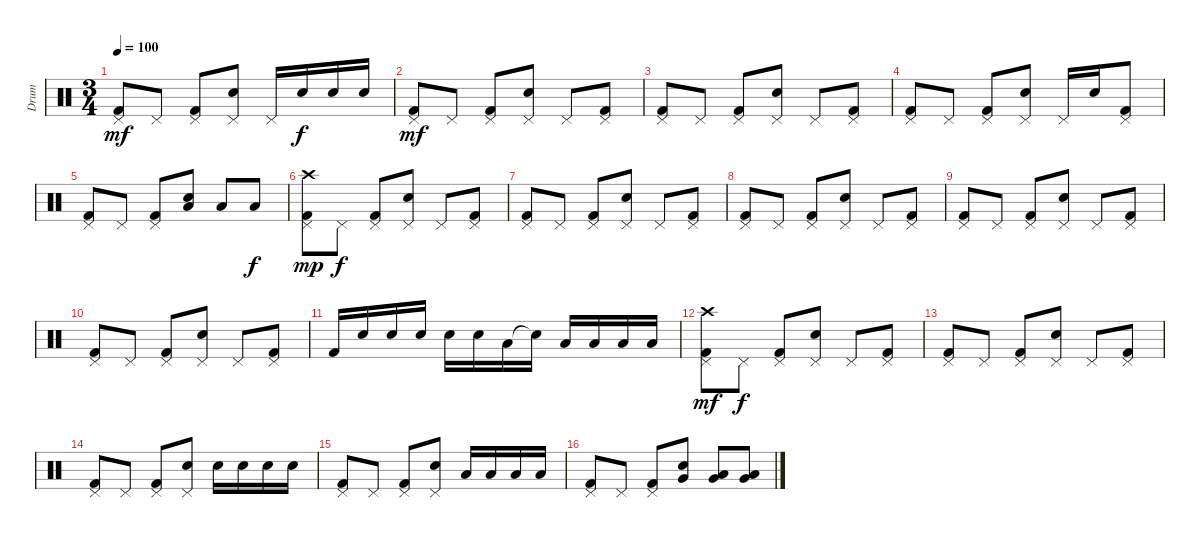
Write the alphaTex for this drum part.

\track ("Drum" "Drum") {instrument percussion}
\staff {score}
\articulation defaults
\ts (3 4)
\tempo 100
\clef neutral
\ks c
("Kick (hit) 2" "Pedal Hi-Hat (hit)").8{dy mf} "Pedal Hi-Hat (hit)".8 ("Kick (hit) 2" "Pedal Hi-Hat (hit)").8 ("Snare (hit) 2" "Pedal Hi-Hat (hit)").8 "Pedal Hi-Hat (hit)".16 "Snare (hit) 2".16{dy f} "Snare (hit) 2".16 "Snare (hit) 2".16 |
("Kick (hit) 2" "Pedal Hi-Hat (hit)").8{dy mf} "Pedal Hi-Hat (hit)".8 ("Kick (hit) 2" "Pedal Hi-Hat (hit)").8 ("Snare (hit) 2" "Pedal Hi-Hat (hit)").8 "Pedal Hi-Hat (hit)".8 ("Kick (hit) 2" "Pedal Hi-Hat (hit)").8 |
("Kick (hit) 2" "Pedal Hi-Hat (hit)").8 "Pedal Hi-Hat (hit)".8 ("Kick (hit) 2" "Pedal Hi-Hat (hit)").8 ("Snare (hit) 2" "Pedal Hi-Hat (hit)").8 "Pedal Hi-Hat (hit)".8 ("Kick (hit) 2" "Pedal Hi-Hat (hit)").8 |
("Kick (hit) 2" "Pedal Hi-Hat (hit)").8 "Pedal Hi-Hat (hit)".8 ("Kick (hit) 2" "Pedal Hi-Hat (hit)").8 ("Snare (hit) 2" "Pedal Hi-Hat (hit)").8 "Pedal Hi-Hat (hit)".16 "Snare (hit) 2".16 ("Kick (hit) 2" "Pedal Hi-Hat (hit)").8 |
("Kick (hit) 2" "Pedal Hi-Hat (hit)").8 "Pedal Hi-Hat (hit)".8 ("Kick (hit) 2" "Pedal Hi-Hat (hit)").8 ("Snare (hit) 2" "Low Tom (hit)").8{bd 120} "Low Tom (hit)".8 "Low Tom (hit)".8{dy f} |
("Kick (hit) 2" "Pedal Hi-Hat (hit)" "Crash high (hit)").8{dy mp} "Pedal Hi-Hat (hit)".8{dy f} ("Kick (hit) 2" "Pedal Hi-Hat (hit)").8 ("Snare (hit) 2" "Pedal Hi-Hat (hit)").8 "Pedal Hi-Hat (hit)".8 ("Kick (hit) 2" "Pedal Hi-Hat (hit)").8 |
("Kick (hit) 2" "Pedal Hi-Hat (hit)").8 "Pedal Hi-Hat (hit)".8 ("Kick (hit) 2" "Pedal Hi-Hat (hit)").8 ("Snare (hit) 2" "Pedal Hi-Hat (hit)").8 "Pedal Hi-Hat (hit)".8 ("Kick (hit) 2" "Pedal Hi-Hat (hit)").8 |
("Kick (hit) 2" "Pedal Hi-Hat (hit)").8 "Pedal Hi-Hat (hit)".8 ("Kick (hit) 2" "Pedal Hi-Hat (hit)").8 ("Snare (hit) 2" "Pedal Hi-Hat (hit)").8 "Pedal Hi-Hat (hit)".8 ("Kick (hit) 2" "Pedal Hi-Hat (hit)").8 |
("Kick (hit) 2" "Pedal Hi-Hat (hit)").8 "Pedal Hi-Hat (hit)".8 ("Kick (hit) 2" "Pedal Hi-Hat (hit)").8 ("Snare (hit) 2" "Pedal Hi-Hat (hit)").8 "Pedal Hi-Hat (hit)".8 ("Kick (hit) 2" "Pedal Hi-Hat (hit)").8 |
("Kick (hit) 2" "Pedal Hi-Hat (hit)").8 "Pedal Hi-Hat (hit)".8 ("Kick (hit) 2" "Pedal Hi-Hat (hit)").8 ("Snare (hit) 2" "Pedal Hi-Hat (hit)").8 "Pedal Hi-Hat (hit)".8 ("Kick (hit) 2" "Pedal Hi-Hat (hit)").8 |
"Kick (hit) 2".16 "Snare (hit) 2".16 "Snare (hit) 2".16 "Snare (hit) 2".16 "Snare (hit) 2".16 "Snare (hit) 2".16 "Low Tom (hit)".16 "Snare (hit)"{t}.16 "Low Tom (hit)".16 "Low Tom (hit)".16 "Low Tom (hit)".16 "Low Tom (hit)".16 |
("Kick (hit) 2" "Pedal Hi-Hat (hit)" "Crash high (hit)").8{dy mf} "Pedal Hi-Hat (hit)".8{dy f} ("Kick (hit) 2" "Pedal Hi-Hat (hit)").8 ("Snare (hit) 2" "Pedal Hi-Hat (hit)").8 "Pedal Hi-Hat (hit)".8 ("Kick (hit) 2" "Pedal Hi-Hat (hit)").8 |
("Kick (hit) 2" "Pedal Hi-Hat (hit)").8 "Pedal Hi-Hat (hit)".8 ("Kick (hit) 2" "Pedal Hi-Hat (hit)").8 ("Snare (hit) 2" "Pedal Hi-Hat (hit)").8 "Pedal Hi-Hat (hit)".8 ("Kick (hit) 2" "Pedal Hi-Hat (hit)").8 |
("Kick (hit) 2" "Pedal Hi-Hat (hit)").8 "Pedal Hi-Hat (hit)".8 ("Kick (hit) 2" "Pedal Hi-Hat (hit)").8 ("Snare (hit) 2" "Pedal Hi-Hat (hit)").8 "Snare (hit) 2".16 "Snare (hit) 2".16 "Snare (hit) 2".16 "Snare (hit) 2".16 |
("Kick (hit) 2" "Pedal Hi-Hat (hit)").8 "Pedal Hi-Hat (hit)".8 ("Kick (hit) 2" "Pedal Hi-Hat (hit)").8 ("Snare (hit) 2" "Pedal Hi-Hat (hit)").8 "Low Tom (hit)".16 "Low Tom (hit)".16 "Low Tom (hit)".16 "Low Tom (hit)".16 |
("Kick (hit) 2" "Pedal Hi-Hat (hit)").8 "Pedal Hi-Hat (hit)".8 ("Kick (hit) 2" "Pedal Hi-Hat (hit)").8 ("Snare (hit) 2" "Very Low Tom (hit)").8{bd 30} ("Low Tom (hit)" "Very Low Tom (hit)").8{bd 30} ("Low Tom (hit)" "Very Low Tom (hit)").8{bd 30}
